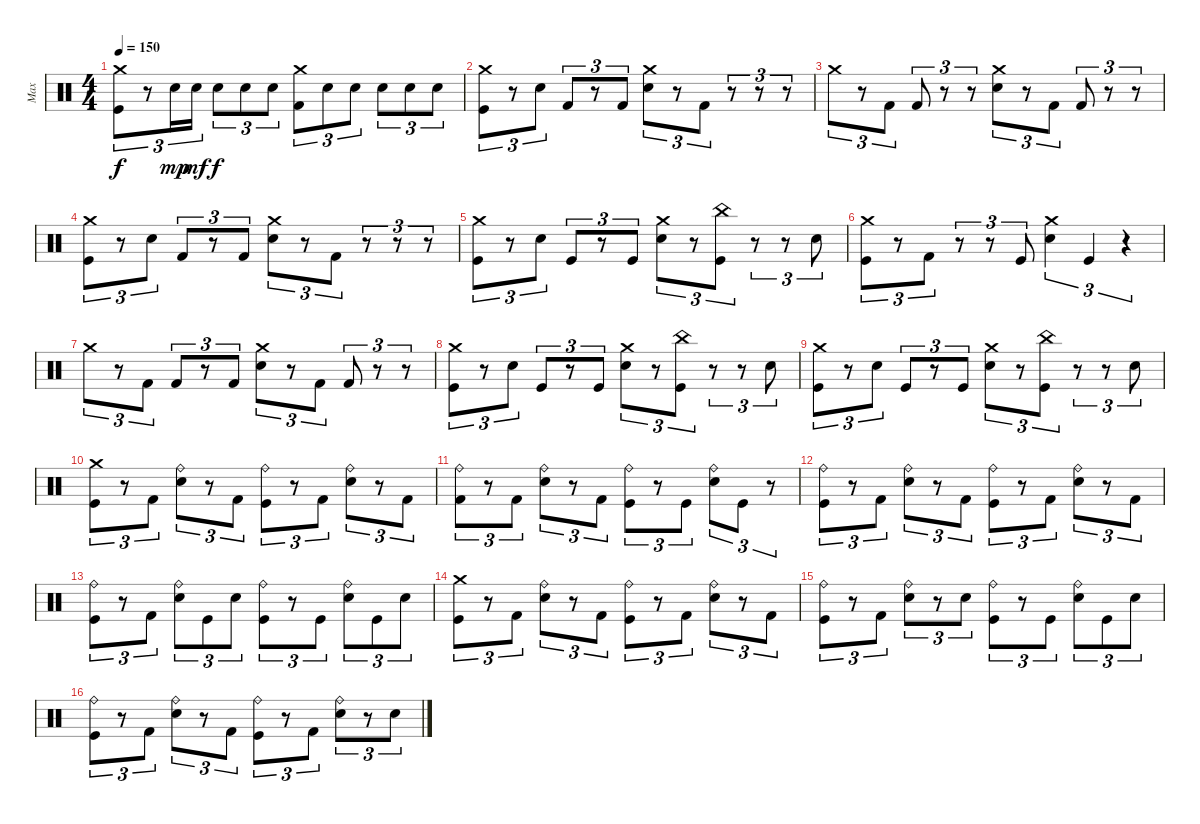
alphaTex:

\track ("Max" "Max") {instrument percussion}
\staff {score}
\articulation defaults
\ts (4 4)
\tempo 150
\clef neutral
\ks c
("Crash medium (hit)" "Kick (hit)").8{tu (3 2) dy f} r.8{tu (3 2)} "Electric Snare (hit)".16{tu (3 2) dy mp} "Electric Snare (hit)".16{tu (3 2) dy mf} "Electric Snare (hit)".8{tu (3 2) dy f} "Electric Snare (hit)".8{tu (3 2)} "Electric Snare (hit)".8{tu (3 2)} ("Crash medium (hit)" "Kick (hit) 2").8{tu (3 2)} "Electric Snare (hit)".8{tu (3 2)} "Electric Snare (hit)".8{tu (3 2)} "Electric Snare (hit)".8{tu (3 2)} "Electric Snare (hit)".8{tu (3 2)} "Electric Snare (hit)".8{tu (3 2)} |
("Crash medium (hit)" "Kick (hit)").8{tu (3 2)} r.8{tu (3 2)} "Electric Snare (hit)".8{tu (3 2)} "Kick (hit) 2".8{tu (3 2)} r.8{tu (3 2)} "Kick (hit) 2".8{tu (3 2)} ("Crash medium (hit)" "Electric Snare (hit)").8{tu (3 2)} r.8{tu (3 2)} "Kick (hit) 2".8{tu (3 2)} r.8{tu (3 2)} r.8{tu (3 2)} r.8{tu (3 2)} |
"Crash medium (hit)".8{tu (3 2)} r.8{tu (3 2)} "Kick (hit) 2".8{tu (3 2)} "Kick (hit) 2".8{tu (3 2)} r.8{tu (3 2)} r.8{tu (3 2)} ("Crash medium (hit)" "Electric Snare (hit)").8{tu (3 2)} r.8{tu (3 2)} "Kick (hit) 2".8{tu (3 2)} "Kick (hit) 2".8{tu (3 2)} r.8{tu (3 2)} r.8{tu (3 2)} |
("Crash medium (hit)" "Kick (hit)").8{tu (3 2)} r.8{tu (3 2)} "Electric Snare (hit)".8{tu (3 2)} "Kick (hit) 2".8{tu (3 2)} r.8{tu (3 2)} "Kick (hit) 2".8{tu (3 2)} ("Crash medium (hit)" "Electric Snare (hit)").8{tu (3 2)} r.8{tu (3 2)} "Kick (hit) 2".8{tu (3 2)} r.8{tu (3 2)} r.8{tu (3 2)} r.8{tu (3 2)} |
("Crash medium (hit)" "Kick (hit)").8{tu (3 2)} r.8{tu (3 2)} "Electric Snare (hit)".8{tu (3 2)} "Kick (hit)".8{tu (3 2)} r.8{tu (3 2)} "Kick (hit)".8{tu (3 2)} ("Crash medium (hit)" "Electric Snare (hit)").8{tu (3 2)} r.8{tu (3 2)} ("China (hit)" "Kick (hit)").8{tu (3 2)} r.8{tu (3 2)} r.8{tu (3 2)} "Electric Snare (hit)".8{tu (3 2)} |
("Crash medium (hit)" "Kick (hit)").8{tu (3 2)} r.8{tu (3 2)} "Kick (hit) 2".8{tu (3 2)} r.8{tu (3 2)} r.8{tu (3 2)} "Kick (hit)".8{tu (3 2)} ("Crash medium (hit)" "Electric Snare (hit)").4{tu (3 2)} "Kick (hit)".4{tu (3 2)} r.4{tu (3 2)} |
"Crash medium (hit)".8{tu (3 2)} r.8{tu (3 2)} "Kick (hit) 2".8{tu (3 2)} "Kick (hit) 2".8{tu (3 2)} r.8{tu (3 2)} "Kick (hit) 2".8{tu (3 2)} ("Crash medium (hit)" "Electric Snare (hit)").8{tu (3 2)} r.8{tu (3 2)} "Kick (hit) 2".8{tu (3 2)} "Kick (hit) 2".8{tu (3 2)} r.8{tu (3 2)} r.8{tu (3 2)} |
("Crash medium (hit)" "Kick (hit)").8{tu (3 2)} r.8{tu (3 2)} "Electric Snare (hit)".8{tu (3 2)} "Kick (hit)".8{tu (3 2)} r.8{tu (3 2)} "Kick (hit)".8{tu (3 2)} ("Crash medium (hit)" "Electric Snare (hit)").8{tu (3 2)} r.8{tu (3 2)} ("China (hit)" "Kick (hit)").8{tu (3 2)} r.8{tu (3 2)} r.8{tu (3 2)} "Electric Snare (hit)".8{tu (3 2)} |
("Crash medium (hit)" "Kick (hit)").8{tu (3 2)} r.8{tu (3 2)} "Electric Snare (hit)".8{tu (3 2)} "Kick (hit)".8{tu (3 2)} r.8{tu (3 2)} "Kick (hit)".8{tu (3 2)} ("Crash medium (hit)" "Electric Snare (hit)").8{tu (3 2)} r.8{tu (3 2)} ("China (hit)" "Kick (hit)").8{tu (3 2)} r.8{tu (3 2)} r.8{tu (3 2)} "Electric Snare (hit)".8{tu (3 2)} |
("Crash medium (hit)" "Kick (hit)").8{tu (3 2)} r.8{tu (3 2)} "Kick (hit) 2".8{tu (3 2)} ("Ride (bell)" "Electric Snare (hit)").8{tu (3 2)} r.8{tu (3 2)} "Kick (hit) 2".8{tu (3 2)} ("Ride (bell)" "Kick (hit)").8{tu (3 2)} r.8{tu (3 2)} "Kick (hit) 2".8{tu (3 2)} ("Ride (bell)" "Electric Snare (hit)").8{tu (3 2)} r.8{tu (3 2)} "Kick (hit) 2".8{tu (3 2)} |
("Ride (bell)" "Kick (hit) 2").8{tu (3 2)} r.8{tu (3 2)} "Kick (hit) 2".8{tu (3 2)} ("Ride (bell)" "Electric Snare (hit)").8{tu (3 2)} r.8{tu (3 2)} "Kick (hit) 2".8{tu (3 2)} ("Ride (bell)" "Kick (hit)").8{tu (3 2)} r.8{tu (3 2)} "Kick (hit)".8{tu (3 2)} ("Ride (bell)" "Electric Snare (hit)").8{tu (3 2)} "Kick (hit)".8{tu (3 2)} r.8{tu (3 2)} |
("Ride (bell)" "Kick (hit)").8{tu (3 2)} r.8{tu (3 2)} "Kick (hit) 2".8{tu (3 2)} ("Ride (bell)" "Electric Snare (hit)").8{tu (3 2)} r.8{tu (3 2)} "Kick (hit) 2".8{tu (3 2)} ("Ride (bell)" "Kick (hit)").8{tu (3 2)} r.8{tu (3 2)} "Kick (hit) 2".8{tu (3 2)} ("Ride (bell)" "Electric Snare (hit)").8{tu (3 2)} r.8{tu (3 2)} "Kick (hit) 2".8{tu (3 2)} |
("Ride (bell)" "Kick (hit)").8{tu (3 2)} r.8{tu (3 2)} "Kick (hit) 2".8{tu (3 2)} ("Ride (bell)" "Electric Snare (hit)").8{tu (3 2)} "Kick (hit)".8{tu (3 2)} "Electric Snare (hit)".8{tu (3 2)} ("Ride (bell)" "Kick (hit)").8{tu (3 2)} r.8{tu (3 2)} "Kick (hit)".8{tu (3 2)} ("Ride (bell)" "Electric Snare (hit)").8{tu (3 2)} "Kick (hit)".8{tu (3 2)} "Electric Snare (hit)".8{tu (3 2)} |
("Crash medium (hit)" "Kick (hit)").8{tu (3 2)} r.8{tu (3 2)} "Kick (hit) 2".8{tu (3 2)} ("Ride (bell)" "Electric Snare (hit)").8{tu (3 2)} r.8{tu (3 2)} "Kick (hit) 2".8{tu (3 2)} ("Ride (bell)" "Kick (hit)").8{tu (3 2)} r.8{tu (3 2)} "Kick (hit) 2".8{tu (3 2)} ("Ride (bell)" "Electric Snare (hit)").8{tu (3 2)} r.8{tu (3 2)} "Kick (hit) 2".8{tu (3 2)} |
("Ride (bell)" "Kick (hit)").8{tu (3 2)} r.8{tu (3 2)} "Kick (hit) 2".8{tu (3 2)} ("Ride (bell)" "Electric Snare (hit)").8{tu (3 2)} r.8{tu (3 2)} "Electric Snare (hit)".8{tu (3 2)} ("Ride (bell)" "Kick (hit)").8{tu (3 2)} r.8{tu (3 2)} "Kick (hit)".8{tu (3 2)} ("Ride (bell)" "Electric Snare (hit)").8{tu (3 2)} "Kick (hit)".8{tu (3 2)} "Electric Snare (hit)".8{tu (3 2)} |
("Ride (bell)" "Kick (hit)").8{tu (3 2)} r.8{tu (3 2)} "Kick (hit) 2".8{tu (3 2)} ("Ride (bell)" "Electric Snare (hit)").8{tu (3 2)} r.8{tu (3 2)} "Kick (hit) 2".8{tu (3 2)} ("Ride (bell)" "Kick (hit)").8{tu (3 2)} r.8{tu (3 2)} "Kick (hit) 2".8{tu (3 2)} ("Ride (bell)" "Electric Snare (hit)").8{tu (3 2)} r.8{tu (3 2)} "Electric Snare (hit)".8{tu (3 2)}
